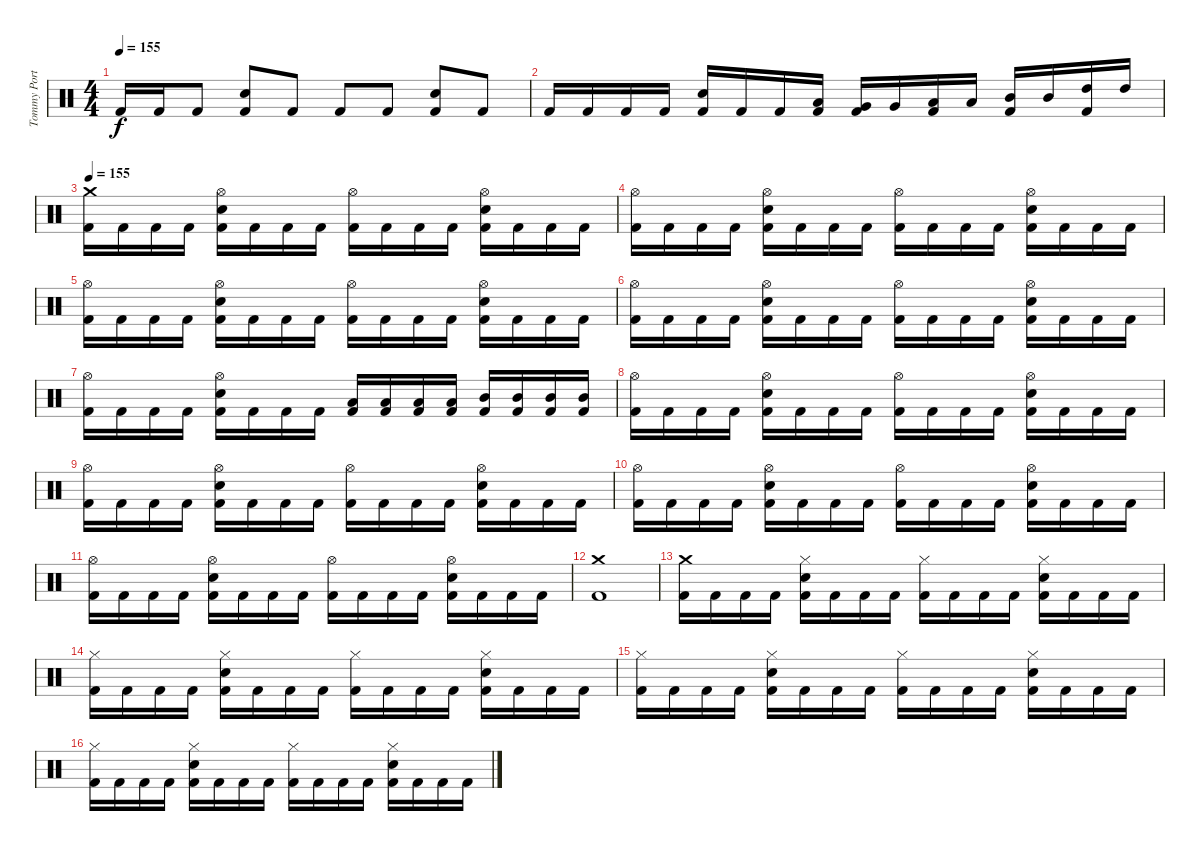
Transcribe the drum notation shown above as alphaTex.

\track ("Tommy Portino" "Tommy Port") {instrument percussion}
\staff {score}
\articulation defaults
\ts (4 4)
\tempo 155
\clef neutral
\ks c "Kick (hit) 2".16{dy f} "Kick (hit) 2".16 "Kick (hit) 2".8
("Electric Snare (hit)" "Kick (hit) 2").8 "Kick (hit) 2".8 "Kick (hit) 2".8 "Kick (hit) 2".8 ("Electric Snare (hit)" "Kick (hit) 2").8 "Kick (hit) 2".8 |
"Kick (hit) 2".16 "Kick (hit) 2".16 "Kick (hit) 2".16 "Kick (hit) 2".16 ("Electric Snare (hit)" "Kick (hit) 2").16 "Kick (hit) 2".16 "Kick (hit) 2".16 ("Low Floor Tom (hit)" "Kick (hit) 2").16 ("Very Low Tom (hit)" "Kick (hit) 2").16 "Very Low Tom (hit)".16 ("Low Tom (hit)" "Kick (hit) 2").16 "Low Tom (hit)".16 ("Mid Tom (hit)" "Kick (hit) 2").16 "Mid Tom (hit)".16 ("High Tom (hit)" "Kick (hit) 2").16 "High Tom (hit)".16 |
\tempo 155
("Crash medium (hit)" "Kick (hit) 2").16 "Kick (hit) 2".16 "Kick (hit) 2".16 "Kick (hit) 2".16 ("Hi-Hat (open)" "Electric Snare (hit)" "Kick (hit) 2").16 "Kick (hit) 2".16 "Kick (hit) 2".16 "Kick (hit) 2".16 ("Hi-Hat (open)" "Kick (hit) 2").16 "Kick (hit) 2".16 "Kick (hit) 2".16 "Kick (hit) 2".16 ("Hi-Hat (open)" "Electric Snare (hit)" "Kick (hit) 2").16 "Kick (hit) 2".16 "Kick (hit) 2".16 "Kick (hit) 2".16 |
("Hi-Hat (open)" "Kick (hit) 2").16 "Kick (hit) 2".16 "Kick (hit) 2".16 "Kick (hit) 2".16 ("Hi-Hat (open)" "Electric Snare (hit)" "Kick (hit) 2").16 "Kick (hit) 2".16 "Kick (hit) 2".16 "Kick (hit) 2".16 ("Hi-Hat (open)" "Kick (hit) 2").16 "Kick (hit) 2".16 "Kick (hit) 2".16 "Kick (hit) 2".16 ("Hi-Hat (open)" "Electric Snare (hit)" "Kick (hit) 2").16 "Kick (hit) 2".16 "Kick (hit) 2".16 "Kick (hit) 2".16 |
("Hi-Hat (open)" "Kick (hit) 2").16 "Kick (hit) 2".16 "Kick (hit) 2".16 "Kick (hit) 2".16 ("Hi-Hat (open)" "Electric Snare (hit)" "Kick (hit) 2").16 "Kick (hit) 2".16 "Kick (hit) 2".16 "Kick (hit) 2".16 ("Hi-Hat (open)" "Kick (hit) 2").16 "Kick (hit) 2".16 "Kick (hit) 2".16 "Kick (hit) 2".16 ("Hi-Hat (open)" "Electric Snare (hit)" "Kick (hit) 2").16 "Kick (hit) 2".16 "Kick (hit) 2".16 "Kick (hit) 2".16 |
("Hi-Hat (open)" "Kick (hit) 2").16 "Kick (hit) 2".16 "Kick (hit) 2".16 "Kick (hit) 2".16 ("Hi-Hat (open)" "Electric Snare (hit)" "Kick (hit) 2").16 "Kick (hit) 2".16 "Kick (hit) 2".16 "Kick (hit) 2".16 ("Hi-Hat (open)" "Kick (hit) 2").16 "Kick (hit) 2".16 "Kick (hit) 2".16 "Kick (hit) 2".16 ("Hi-Hat (open)" "Electric Snare (hit)" "Kick (hit) 2").16 "Kick (hit) 2".16 "Kick (hit) 2".16 "Kick (hit) 2".16 |
("Hi-Hat (open)" "Kick (hit) 2").16 "Kick (hit) 2".16 "Kick (hit) 2".16 "Kick (hit) 2".16 ("Hi-Hat (open)" "Electric Snare (hit)" "Kick (hit) 2").16 "Kick (hit) 2".16 "Kick (hit) 2".16 "Kick (hit) 2".16 ("Low Tom (hit)" "Kick (hit) 2").16 ("Low Tom (hit)" "Kick (hit) 2").16 ("Low Tom (hit)" "Kick (hit) 2").16 ("Low Tom (hit)" "Kick (hit) 2").16 ("Mid Tom (hit)" "Kick (hit) 2").16 ("Mid Tom (hit)" "Kick (hit) 2").16 ("Mid Tom (hit)" "Kick (hit) 2").16 ("Mid Tom (hit)" "Kick (hit) 2").16 |
("Hi-Hat (open)" "Kick (hit) 2").16 "Kick (hit) 2".16 "Kick (hit) 2".16 "Kick (hit) 2".16 ("Hi-Hat (open)" "Electric Snare (hit)" "Kick (hit) 2").16 "Kick (hit) 2".16 "Kick (hit) 2".16 "Kick (hit) 2".16 ("Hi-Hat (open)" "Kick (hit) 2").16 "Kick (hit) 2".16 "Kick (hit) 2".16 "Kick (hit) 2".16 ("Hi-Hat (open)" "Electric Snare (hit)" "Kick (hit) 2").16 "Kick (hit) 2".16 "Kick (hit) 2".16 "Kick (hit) 2".16 |
("Hi-Hat (open)" "Kick (hit) 2").16 "Kick (hit) 2".16 "Kick (hit) 2".16 "Kick (hit) 2".16 ("Hi-Hat (open)" "Electric Snare (hit)" "Kick (hit) 2").16 "Kick (hit) 2".16 "Kick (hit) 2".16 "Kick (hit) 2".16 ("Hi-Hat (open)" "Kick (hit) 2").16 "Kick (hit) 2".16 "Kick (hit) 2".16 "Kick (hit) 2".16 ("Hi-Hat (open)" "Electric Snare (hit)" "Kick (hit) 2").16 "Kick (hit) 2".16 "Kick (hit) 2".16 "Kick (hit) 2".16 |
("Hi-Hat (open)" "Kick (hit) 2").16 "Kick (hit) 2".16 "Kick (hit) 2".16 "Kick (hit) 2".16 ("Hi-Hat (open)" "Electric Snare (hit)" "Kick (hit) 2").16 "Kick (hit) 2".16 "Kick (hit) 2".16 "Kick (hit) 2".16 ("Hi-Hat (open)" "Kick (hit) 2").16 "Kick (hit) 2".16 "Kick (hit) 2".16 "Kick (hit) 2".16 ("Hi-Hat (open)" "Electric Snare (hit)" "Kick (hit) 2").16 "Kick (hit) 2".16 "Kick (hit) 2".16 "Kick (hit) 2".16 |
("Hi-Hat (open)" "Kick (hit) 2").16 "Kick (hit) 2".16 "Kick (hit) 2".16 "Kick (hit) 2".16 ("Hi-Hat (open)" "Electric Snare (hit)" "Kick (hit) 2").16 "Kick (hit) 2".16 "Kick (hit) 2".16 "Kick (hit) 2".16 ("Hi-Hat (open)" "Kick (hit) 2").16 "Kick (hit) 2".16 "Kick (hit) 2".16 "Kick (hit) 2".16 ("Hi-Hat (open)" "Electric Snare (hit)" "Kick (hit) 2").16 "Kick (hit) 2".16 "Kick (hit) 2".16 "Kick (hit) 2".16 |
("Crash medium (hit)" "Kick (hit) 2").1 |
("Crash medium (hit)" "Kick (hit) 2").16 "Kick (hit) 2".16 "Kick (hit) 2".16 "Kick (hit) 2".16 ("Hi-Hat (closed)" "Electric Snare (hit)" "Kick (hit) 2").16 "Kick (hit) 2".16 "Kick (hit) 2".16 "Kick (hit) 2".16 ("Hi-Hat (closed)" "Kick (hit) 2").16 "Kick (hit) 2".16 "Kick (hit) 2".16 "Kick (hit) 2".16 ("Hi-Hat (closed)" "Electric Snare (hit)" "Kick (hit) 2").16 "Kick (hit) 2".16 "Kick (hit) 2".16 "Kick (hit) 2".16 |
("Hi-Hat (closed)" "Kick (hit) 2").16 "Kick (hit) 2".16 "Kick (hit) 2".16 "Kick (hit) 2".16 ("Hi-Hat (closed)" "Electric Snare (hit)" "Kick (hit) 2").16 "Kick (hit) 2".16 "Kick (hit) 2".16 "Kick (hit) 2".16 ("Hi-Hat (closed)" "Kick (hit) 2").16 "Kick (hit) 2".16 "Kick (hit) 2".16 "Kick (hit) 2".16 ("Hi-Hat (closed)" "Electric Snare (hit)" "Kick (hit) 2").16 "Kick (hit) 2".16 "Kick (hit) 2".16 "Kick (hit) 2".16 |
("Hi-Hat (closed)" "Kick (hit) 2").16 "Kick (hit) 2".16 "Kick (hit) 2".16 "Kick (hit) 2".16 ("Hi-Hat (closed)" "Electric Snare (hit)" "Kick (hit) 2").16 "Kick (hit) 2".16 "Kick (hit) 2".16 "Kick (hit) 2".16 ("Hi-Hat (closed)" "Kick (hit) 2").16 "Kick (hit) 2".16 "Kick (hit) 2".16 "Kick (hit) 2".16 ("Hi-Hat (closed)" "Electric Snare (hit)" "Kick (hit) 2").16 "Kick (hit) 2".16 "Kick (hit) 2".16 "Kick (hit) 2".16 |
("Hi-Hat (closed)" "Kick (hit) 2").16 "Kick (hit) 2".16 "Kick (hit) 2".16 "Kick (hit) 2".16 ("Hi-Hat (closed)" "Electric Snare (hit)" "Kick (hit) 2").16 "Kick (hit) 2".16 "Kick (hit) 2".16 "Kick (hit) 2".16 ("Hi-Hat (closed)" "Kick (hit) 2").16 "Kick (hit) 2".16 "Kick (hit) 2".16 "Kick (hit) 2".16 ("Hi-Hat (closed)" "Electric Snare (hit)" "Kick (hit) 2").16 "Kick (hit) 2".16 "Kick (hit) 2".16 "Kick (hit) 2".16
